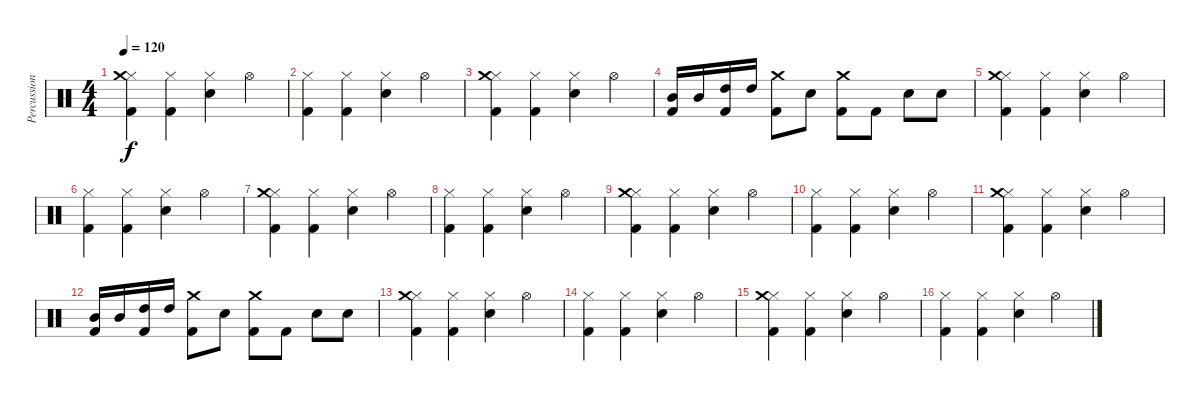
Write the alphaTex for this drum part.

\track ("Percussion" "Percussion") {instrument percussion}
\staff {score}
\articulation defaults
\ts (4 4)
\tempo 120
\clef neutral
\ks c
("Hi-Hat (closed)" "Kick (hit) 2" "Crash medium (hit)").4{dy f} ("Hi-Hat (closed)" "Kick (hit) 2").4 ("Hi-Hat (closed)" "Snare (hit) 2").4 "Hi-Hat (open)".4 |
("Hi-Hat (closed)" "Kick (hit) 2").4 ("Hi-Hat (closed)" "Kick (hit) 2").4 ("Hi-Hat (closed)" "Snare (hit) 2").4 "Hi-Hat (open)".4 |
("Hi-Hat (closed)" "Kick (hit) 2" "Crash medium (hit)").4 ("Hi-Hat (closed)" "Kick (hit) 2").4 ("Hi-Hat (closed)" "Snare (hit) 2").4 "Hi-Hat (open)".4 |
("Mid Tom (hit)" "Kick (hit) 2").16 "Mid Tom (hit)".16 ("High Tom (hit)" "Kick (hit) 2").16 "High Tom (hit)".16 ("Kick (hit) 2" "Crash medium (hit)").8 "Snare (hit) 2".8 ("Kick (hit) 2" "Crash medium (hit)").8 "Kick (hit) 2".8 "Snare (hit) 2".8 "Snare (hit) 2".8 |
("Hi-Hat (closed)" "Kick (hit) 2" "Crash medium (hit)").4 ("Hi-Hat (closed)" "Kick (hit) 2").4 ("Hi-Hat (closed)" "Snare (hit) 2").4 "Hi-Hat (open)".4 |
("Hi-Hat (closed)" "Kick (hit) 2").4 ("Hi-Hat (closed)" "Kick (hit) 2").4 ("Hi-Hat (closed)" "Snare (hit) 2").4 "Hi-Hat (open)".4 |
("Hi-Hat (closed)" "Kick (hit) 2" "Crash medium (hit)").4 ("Hi-Hat (closed)" "Kick (hit) 2").4 ("Hi-Hat (closed)" "Snare (hit) 2").4 "Hi-Hat (open)".4 |
("Hi-Hat (closed)" "Kick (hit) 2").4 ("Hi-Hat (closed)" "Kick (hit) 2").4 ("Hi-Hat (closed)" "Snare (hit) 2").4 "Hi-Hat (open)".4 |
("Hi-Hat (closed)" "Kick (hit) 2" "Crash medium (hit)").4 ("Hi-Hat (closed)" "Kick (hit) 2").4 ("Hi-Hat (closed)" "Snare (hit) 2").4 "Hi-Hat (open)".4 |
("Hi-Hat (closed)" "Kick (hit) 2").4 ("Hi-Hat (closed)" "Kick (hit) 2").4 ("Hi-Hat (closed)" "Snare (hit) 2").4 "Hi-Hat (open)".4 |
("Hi-Hat (closed)" "Kick (hit) 2" "Crash medium (hit)").4 ("Hi-Hat (closed)" "Kick (hit) 2").4 ("Hi-Hat (closed)" "Snare (hit) 2").4 "Hi-Hat (open)".4 |
("Mid Tom (hit)" "Kick (hit) 2").16 "Mid Tom (hit)".16 ("High Tom (hit)" "Kick (hit) 2").16 "High Tom (hit)".16 ("Kick (hit) 2" "Crash medium (hit)").8 "Snare (hit) 2".8 ("Kick (hit) 2" "Crash medium (hit)").8 "Kick (hit) 2".8 "Snare (hit) 2".8 "Snare (hit) 2".8 |
("Hi-Hat (closed)" "Kick (hit) 2" "Crash medium (hit)").4 ("Hi-Hat (closed)" "Kick (hit) 2").4 ("Hi-Hat (closed)" "Snare (hit) 2").4 "Hi-Hat (open)".4 |
("Hi-Hat (closed)" "Kick (hit) 2").4 ("Hi-Hat (closed)" "Kick (hit) 2").4 ("Hi-Hat (closed)" "Snare (hit) 2").4 "Hi-Hat (open)".4 |
("Hi-Hat (closed)" "Kick (hit) 2" "Crash medium (hit)").4 ("Hi-Hat (closed)" "Kick (hit) 2").4 ("Hi-Hat (closed)" "Snare (hit) 2").4 "Hi-Hat (open)".4 |
("Hi-Hat (closed)" "Kick (hit) 2").4 ("Hi-Hat (closed)" "Kick (hit) 2").4 ("Hi-Hat (closed)" "Snare (hit) 2").4 "Hi-Hat (open)".4
